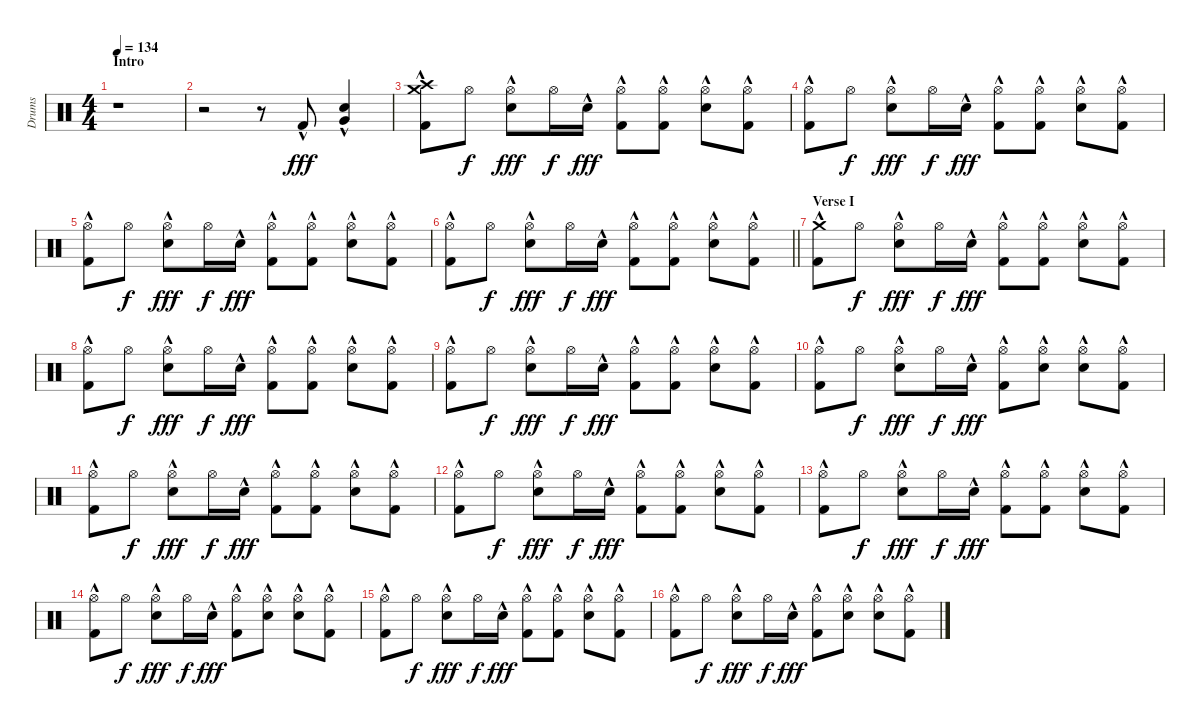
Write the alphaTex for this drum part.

\track ("Drums" "Drums") {instrument percussion}
\staff {score}
\articulation defaults
\ts (4 4)
\section ("" "Intro")
\tempo 134
\clef neutral
\ks c
r.1{dy fff} |
r.2 r.8 "Kick (hit) 2"{hac}.8 ("Snare (hit) 2"{hac} "Very Low Tom (hit)"{hac}).4 |
("Crash medium (hit)" "Crash high (hit)" "Kick (hit) 2"{hac}).8 "Hi-Hat (open)".8{dy f} ("Hi-Hat (open)" "Snare (hit) 2"{hac}).8{dy fff} "Hi-Hat (open)".16{dy f} "Snare (hit) 2"{hac}.16{dy fff} ("Hi-Hat (open)" "Kick (hit) 2"{hac}).8 ("Hi-Hat (open)" "Kick (hit) 2"{hac}).8 ("Hi-Hat (open)" "Snare (hit) 2"{hac}).8 ("Hi-Hat (open)" "Kick (hit) 2"{hac}).8 |
("Hi-Hat (open)" "Kick (hit) 2"{hac}).8 "Hi-Hat (open)".8{dy f} ("Hi-Hat (open)" "Snare (hit) 2"{hac}).8{dy fff} "Hi-Hat (open)".16{dy f} "Snare (hit) 2"{hac}.16{dy fff} ("Hi-Hat (open)" "Kick (hit) 2"{hac}).8 ("Hi-Hat (open)" "Kick (hit) 2"{hac}).8 ("Hi-Hat (open)" "Snare (hit) 2"{hac}).8 ("Hi-Hat (open)" "Kick (hit) 2"{hac}).8 |
("Hi-Hat (open)" "Kick (hit) 2"{hac}).8 "Hi-Hat (open)".8{dy f} ("Hi-Hat (open)" "Snare (hit) 2"{hac}).8{dy fff} "Hi-Hat (open)".16{dy f} "Snare (hit) 2"{hac}.16{dy fff} ("Hi-Hat (open)" "Kick (hit) 2"{hac}).8 ("Hi-Hat (open)" "Kick (hit) 2"{hac}).8 ("Hi-Hat (open)" "Snare (hit) 2"{hac}).8 ("Hi-Hat (open)" "Kick (hit) 2"{hac}).8 |
\barLineRight lightlight
("Hi-Hat (open)" "Kick (hit) 2"{hac}).8 "Hi-Hat (open)".8{dy f} ("Hi-Hat (open)" "Snare (hit) 2"{hac}).8{dy fff} "Hi-Hat (open)".16{dy f} "Snare (hit) 2"{hac}.16{dy fff} ("Hi-Hat (open)" "Kick (hit) 2"{hac}).8 ("Hi-Hat (open)" "Kick (hit) 2"{hac}).8 ("Hi-Hat (open)" "Snare (hit) 2"{hac}).8 ("Hi-Hat (open)" "Kick (hit) 2"{hac}).8 |
\section ("" "Verse I")
("Crash medium (hit)" "Kick (hit) 2"{hac}).8 "Hi-Hat (open)".8{dy f} ("Hi-Hat (open)" "Snare (hit) 2"{hac}).8{dy fff} "Hi-Hat (open)".16{dy f} "Snare (hit) 2"{hac}.16{dy fff} ("Hi-Hat (open)" "Kick (hit) 2"{hac}).8 ("Hi-Hat (open)" "Kick (hit) 2"{hac}).8 ("Hi-Hat (open)" "Snare (hit) 2"{hac}).8 ("Hi-Hat (open)" "Kick (hit) 2"{hac}).8 |
("Hi-Hat (open)" "Kick (hit) 2"{hac}).8 "Hi-Hat (open)".8{dy f} ("Hi-Hat (open)" "Snare (hit) 2"{hac}).8{dy fff} "Hi-Hat (open)".16{dy f} "Snare (hit) 2"{hac}.16{dy fff} ("Hi-Hat (open)" "Kick (hit) 2"{hac}).8 ("Hi-Hat (open)" "Kick (hit) 2"{hac}).8 ("Hi-Hat (open)" "Snare (hit) 2"{hac}).8 ("Hi-Hat (open)" "Kick (hit) 2"{hac}).8 |
("Hi-Hat (open)" "Kick (hit) 2"{hac}).8 "Hi-Hat (open)".8{dy f} ("Hi-Hat (open)" "Snare (hit) 2"{hac}).8{dy fff} "Hi-Hat (open)".16{dy f} "Snare (hit) 2"{hac}.16{dy fff} ("Hi-Hat (open)" "Kick (hit) 2"{hac}).8 ("Hi-Hat (open)" "Kick (hit) 2"{hac}).8 ("Hi-Hat (open)" "Snare (hit) 2"{hac}).8 ("Hi-Hat (open)" "Kick (hit) 2"{hac}).8 |
("Hi-Hat (open)" "Kick (hit) 2"{hac}).8 "Hi-Hat (open)".8{dy f} ("Hi-Hat (open)" "Snare (hit) 2"{hac}).8{dy fff} "Hi-Hat (open)".16{dy f} "Snare (hit) 2"{hac}.16{dy fff} ("Hi-Hat (open)" "Kick (hit) 2"{hac}).8 ("Hi-Hat (open)"{hac} "Snare (hit) 2"{hac}).8 ("Hi-Hat (open)"{hac} "Snare (hit) 2"{hac}).8 ("Hi-Hat (open)" "Kick (hit) 2"{hac}).8 |
("Hi-Hat (open)" "Kick (hit) 2"{hac}).8 "Hi-Hat (open)".8{dy f} ("Hi-Hat (open)" "Snare (hit) 2"{hac}).8{dy fff} "Hi-Hat (open)".16{dy f} "Snare (hit) 2"{hac}.16{dy fff} ("Hi-Hat (open)" "Kick (hit) 2"{hac}).8 ("Hi-Hat (open)" "Kick (hit) 2"{hac}).8 ("Hi-Hat (open)" "Snare (hit) 2"{hac}).8 ("Hi-Hat (open)" "Kick (hit) 2"{hac}).8 |
("Hi-Hat (open)" "Kick (hit) 2"{hac}).8 "Hi-Hat (open)".8{dy f} ("Hi-Hat (open)" "Snare (hit) 2"{hac}).8{dy fff} "Hi-Hat (open)".16{dy f} "Snare (hit) 2"{hac}.16{dy fff} ("Hi-Hat (open)" "Kick (hit) 2"{hac}).8 ("Hi-Hat (open)" "Kick (hit) 2"{hac}).8 ("Hi-Hat (open)" "Snare (hit) 2"{hac}).8 ("Hi-Hat (open)" "Kick (hit) 2"{hac}).8 |
("Hi-Hat (open)" "Kick (hit) 2"{hac}).8 "Hi-Hat (open)".8{dy f} ("Hi-Hat (open)" "Snare (hit) 2"{hac}).8{dy fff} "Hi-Hat (open)".16{dy f} "Snare (hit) 2"{hac}.16{dy fff} ("Hi-Hat (open)" "Kick (hit) 2"{hac}).8 ("Hi-Hat (open)" "Kick (hit) 2"{hac}).8 ("Hi-Hat (open)" "Snare (hit) 2"{hac}).8 ("Hi-Hat (open)" "Kick (hit) 2"{hac}).8 |
("Hi-Hat (open)" "Kick (hit) 2"{hac}).8 "Hi-Hat (open)".8{dy f} ("Hi-Hat (open)" "Snare (hit) 2"{hac}).8{dy fff} "Hi-Hat (open)".16{dy f} "Snare (hit) 2"{hac}.16{dy fff} ("Hi-Hat (open)" "Kick (hit) 2"{hac}).8 ("Hi-Hat (open)"{hac} "Snare (hit) 2"{hac}).8 ("Hi-Hat (open)"{hac} "Snare (hit) 2"{hac}).8 ("Hi-Hat (open)" "Kick (hit) 2"{hac}).8 |
("Hi-Hat (open)" "Kick (hit) 2"{hac}).8 "Hi-Hat (open)".8{dy f} ("Hi-Hat (open)" "Snare (hit) 2"{hac}).8{dy fff} "Hi-Hat (open)".16{dy f} "Snare (hit) 2"{hac}.16{dy fff} ("Hi-Hat (open)" "Kick (hit) 2"{hac}).8 ("Hi-Hat (open)" "Kick (hit) 2"{hac}).8 ("Hi-Hat (open)" "Snare (hit) 2"{hac}).8 ("Hi-Hat (open)" "Kick (hit) 2"{hac}).8 |
("Hi-Hat (open)" "Kick (hit) 2"{hac}).8 "Hi-Hat (open)".8{dy f} ("Hi-Hat (open)" "Snare (hit) 2"{hac}).8{dy fff} "Hi-Hat (open)".16{dy f} "Snare (hit) 2"{hac}.16{dy fff} ("Hi-Hat (open)" "Kick (hit) 2"{hac}).8 ("Hi-Hat (open)" "Snare (hit) 2"{hac}).8 ("Hi-Hat (open)" "Snare (hit) 2"{hac}).8 ("Hi-Hat (open)" "Kick (hit) 2"{hac}).8
